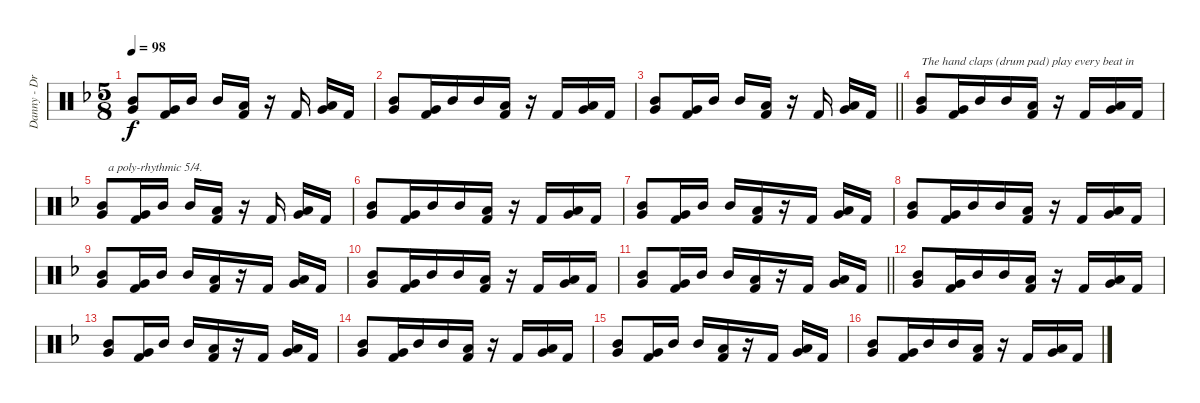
\track ("Danny - Drums" "Danny - Dr") {instrument percussion}
\staff {score}
\articulation defaults
\ts (5 8)
\tempo 98
\clef neutral
\ks dminor
("Mid Tom (hit)" "Very Low Tom (hit)").8{dy f beam merge} ("Very Low Tom (hit)" "Kick (hit) 2").16 "Mid Tom (hit)".16{beam split} "Mid Tom (hit)".16 ("Low Tom (hit)" "Kick (hit) 2").16 r.16 "Kick (hit) 2".16{beam split} ("Low Tom (hit)" "Very Low Tom (hit)").16 "Kick (hit) 2".16 |
("Mid Tom (hit)" "Very Low Tom (hit)").8{beam merge} ("Very Low Tom (hit)" "Kick (hit) 2").16 "Mid Tom (hit)".16 "Mid Tom (hit)".16 ("Low Tom (hit)" "Kick (hit) 2").16 r.16 "Kick (hit) 2".16 ("Low Tom (hit)" "Very Low Tom (hit)").16 "Kick (hit) 2".16 |
\barLineRight lightlight
("Mid Tom (hit)" "Very Low Tom (hit)").8{beam merge} ("Very Low Tom (hit)" "Kick (hit) 2").16 "Mid Tom (hit)".16{beam split} "Mid Tom (hit)".16 ("Low Tom (hit)" "Kick (hit) 2").16 r.16 "Kick (hit) 2".16{beam split} ("Low Tom (hit)" "Very Low Tom (hit)").16 "Kick (hit) 2".16 |
("Mid Tom (hit)" "Very Low Tom (hit)").8{txt "The hand claps (drum pad) play every beat in" beam merge} ("Very Low Tom (hit)" "Kick (hit) 2").16 "Mid Tom (hit)".16 "Mid Tom (hit)".16 ("Low Tom (hit)" "Kick (hit) 2").16 r.16 "Kick (hit) 2".16 ("Low Tom (hit)" "Very Low Tom (hit)").16 "Kick (hit) 2".16 |
("Mid Tom (hit)" "Very Low Tom (hit)").8{txt "  a poly-rhythmic 5/4." beam merge} ("Very Low Tom (hit)" "Kick (hit) 2").16 "Mid Tom (hit)".16{beam split} "Mid Tom (hit)".16 ("Low Tom (hit)" "Kick (hit) 2").16 r.16 "Kick (hit) 2".16{beam split} ("Low Tom (hit)" "Very Low Tom (hit)").16 "Kick (hit) 2".16 |
("Mid Tom (hit)" "Very Low Tom (hit)").8{beam merge} ("Very Low Tom (hit)" "Kick (hit) 2").16 "Mid Tom (hit)".16 "Mid Tom (hit)".16 ("Low Tom (hit)" "Kick (hit) 2").16 r.16 "Kick (hit) 2".16 ("Low Tom (hit)" "Very Low Tom (hit)").16 "Kick (hit) 2".16 |
("Mid Tom (hit)" "Very Low Tom (hit)").8{beam merge} ("Very Low Tom (hit)" "Kick (hit) 2").16 "Mid Tom (hit)".16{beam split} "Mid Tom (hit)".16 ("Low Tom (hit)" "Kick (hit) 2").16{beam merge} r.16 "Kick (hit) 2".16{beam split} ("Low Tom (hit)" "Very Low Tom (hit)").16 "Kick (hit) 2".16 |
("Mid Tom (hit)" "Very Low Tom (hit)").8{beam merge} ("Very Low Tom (hit)" "Kick (hit) 2").16 "Mid Tom (hit)".16 "Mid Tom (hit)".16 ("Low Tom (hit)" "Kick (hit) 2").16 r.16 "Kick (hit) 2".16 ("Low Tom (hit)" "Very Low Tom (hit)").16 "Kick (hit) 2".16 |
("Mid Tom (hit)" "Very Low Tom (hit)").8{beam merge} ("Very Low Tom (hit)" "Kick (hit) 2").16 "Mid Tom (hit)".16{beam split} "Mid Tom (hit)".16 ("Low Tom (hit)" "Kick (hit) 2").16{beam merge} r.16 "Kick (hit) 2".16{beam split} ("Low Tom (hit)" "Very Low Tom (hit)").16 "Kick (hit) 2".16 |
("Mid Tom (hit)" "Very Low Tom (hit)").8{beam merge} ("Very Low Tom (hit)" "Kick (hit) 2").16 "Mid Tom (hit)".16 "Mid Tom (hit)".16 ("Low Tom (hit)" "Kick (hit) 2").16 r.16 "Kick (hit) 2".16 ("Low Tom (hit)" "Very Low Tom (hit)").16 "Kick (hit) 2".16 |
\barLineRight lightlight
("Mid Tom (hit)" "Very Low Tom (hit)").8{beam merge} ("Very Low Tom (hit)" "Kick (hit) 2").16 "Mid Tom (hit)".16{beam split} "Mid Tom (hit)".16 ("Low Tom (hit)" "Kick (hit) 2").16{beam merge} r.16 "Kick (hit) 2".16{beam split} ("Low Tom (hit)" "Very Low Tom (hit)").16 "Kick (hit) 2".16 |
("Mid Tom (hit)" "Very Low Tom (hit)").8{beam merge} ("Very Low Tom (hit)" "Kick (hit) 2").16 "Mid Tom (hit)".16 "Mid Tom (hit)".16 ("Low Tom (hit)" "Kick (hit) 2").16 r.16 "Kick (hit) 2".16 ("Low Tom (hit)" "Very Low Tom (hit)").16 "Kick (hit) 2".16 |
("Mid Tom (hit)" "Very Low Tom (hit)").8{beam merge} ("Very Low Tom (hit)" "Kick (hit) 2").16 "Mid Tom (hit)".16{beam split} "Mid Tom (hit)".16 ("Low Tom (hit)" "Kick (hit) 2").16{beam merge} r.16 "Kick (hit) 2".16{beam split} ("Low Tom (hit)" "Very Low Tom (hit)").16 "Kick (hit) 2".16 |
("Mid Tom (hit)" "Very Low Tom (hit)").8{beam merge} ("Very Low Tom (hit)" "Kick (hit) 2").16 "Mid Tom (hit)".16 "Mid Tom (hit)".16 ("Low Tom (hit)" "Kick (hit) 2").16 r.16 "Kick (hit) 2".16 ("Low Tom (hit)" "Very Low Tom (hit)").16 "Kick (hit) 2".16 |
("Mid Tom (hit)" "Very Low Tom (hit)").8{beam merge} ("Very Low Tom (hit)" "Kick (hit) 2").16 "Mid Tom (hit)".16{beam split} "Mid Tom (hit)".16 ("Low Tom (hit)" "Kick (hit) 2").16{beam merge} r.16 "Kick (hit) 2".16{beam split} ("Low Tom (hit)" "Very Low Tom (hit)").16 "Kick (hit) 2".16 |
("Mid Tom (hit)" "Very Low Tom (hit)").8{beam merge} ("Very Low Tom (hit)" "Kick (hit) 2").16 "Mid Tom (hit)".16 "Mid Tom (hit)".16 ("Low Tom (hit)" "Kick (hit) 2").16 r.16 "Kick (hit) 2".16 ("Low Tom (hit)" "Very Low Tom (hit)").16 "Kick (hit) 2".16
